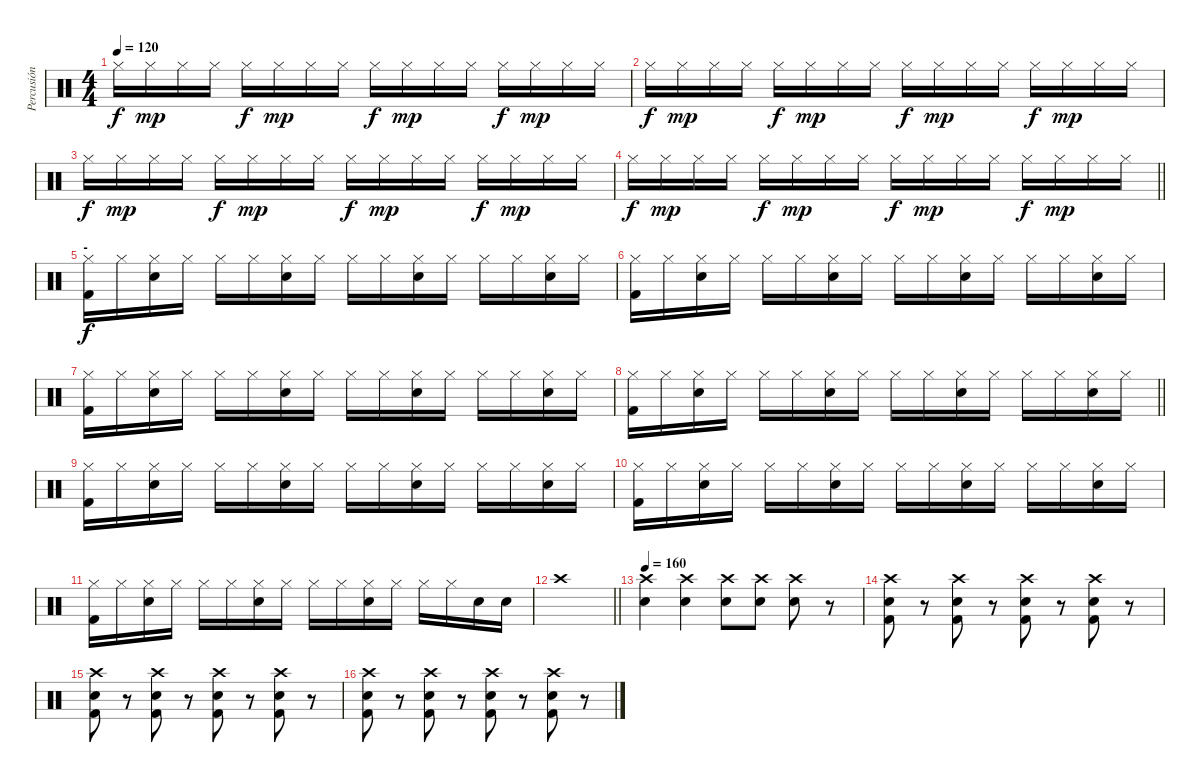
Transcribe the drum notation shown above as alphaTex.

\track ("Percusión" "Percusión") {instrument percussion}
\staff {score}
\articulation defaults
\ts (4 4)
\tempo 120
\clef neutral
\ks c "Hi-Hat (closed)".16{dy f} "Hi-Hat (closed)".16{dy mp} "Hi-Hat (closed)".16 "Hi-Hat (closed)".16 "Hi-Hat (closed)".16{dy f} "Hi-Hat (closed)".16{dy mp} "Hi-Hat (closed)".16 "Hi-Hat (closed)".16 "Hi-Hat (closed)".16{dy f} "Hi-Hat (closed)".16{dy mp} "Hi-Hat (closed)".16 "Hi-Hat (closed)".16 "Hi-Hat (closed)".16{dy f} "Hi-Hat (closed)".16{dy mp} "Hi-Hat (closed)".16 "Hi-Hat (closed)".16
|
"Hi-Hat (closed)".16{dy f} "Hi-Hat (closed)".16{dy mp} "Hi-Hat (closed)".16 "Hi-Hat (closed)".16 "Hi-Hat (closed)".16{dy f} "Hi-Hat (closed)".16{dy mp} "Hi-Hat (closed)".16 "Hi-Hat (closed)".16 "Hi-Hat (closed)".16{dy f} "Hi-Hat (closed)".16{dy mp} "Hi-Hat (closed)".16 "Hi-Hat (closed)".16 "Hi-Hat (closed)".16{dy f} "Hi-Hat (closed)".16{dy mp} "Hi-Hat (closed)".16 "Hi-Hat (closed)".16 |
"Hi-Hat (closed)".16{dy f} "Hi-Hat (closed)".16{dy mp} "Hi-Hat (closed)".16 "Hi-Hat (closed)".16 "Hi-Hat (closed)".16{dy f} "Hi-Hat (closed)".16{dy mp} "Hi-Hat (closed)".16 "Hi-Hat (closed)".16 "Hi-Hat (closed)".16{dy f} "Hi-Hat (closed)".16{dy mp} "Hi-Hat (closed)".16 "Hi-Hat (closed)".16 "Hi-Hat (closed)".16{dy f} "Hi-Hat (closed)".16{dy mp} "Hi-Hat (closed)".16 "Hi-Hat (closed)".16 |
\barLineRight lightlight "Hi-Hat (closed)".16{dy f} "Hi-Hat (closed)".16{dy mp} "Hi-Hat (closed)".16 "Hi-Hat (closed)".16 "Hi-Hat (closed)".16{dy f} "Hi-Hat (closed)".16{dy mp} "Hi-Hat (closed)".16 "Hi-Hat (closed)".16 "Hi-Hat (closed)".16{dy f} "Hi-Hat (closed)".16{dy mp} "Hi-Hat (closed)".16 "Hi-Hat (closed)".16 "Hi-Hat (closed)".16{dy f} "Hi-Hat (closed)".16{dy mp} "Hi-Hat (closed)".16 "Hi-Hat (closed)".16
|
\section ("" "-")
("Hi-Hat (closed)" "Kick (hit) 2").16{dy f} "Hi-Hat (closed)".16 ("Hi-Hat (closed)" "Electric Snare (hit)").16 "Hi-Hat (closed)".16 "Hi-Hat (closed)".16 "Hi-Hat (closed)".16 ("Hi-Hat (closed)" "Electric Snare (hit)").16 "Hi-Hat (closed)".16 "Hi-Hat (closed)".16 "Hi-Hat (closed)".16 ("Hi-Hat (closed)" "Electric Snare (hit)").16 "Hi-Hat (closed)".16 "Hi-Hat (closed)".16 "Hi-Hat (closed)".16 ("Hi-Hat (closed)" "Electric Snare (hit)").16 "Hi-Hat (closed)".16 |
("Hi-Hat (closed)" "Kick (hit) 2").16 "Hi-Hat (closed)".16 ("Hi-Hat (closed)" "Electric Snare (hit)").16 "Hi-Hat (closed)".16 "Hi-Hat (closed)".16 "Hi-Hat (closed)".16 ("Hi-Hat (closed)" "Electric Snare (hit)").16 "Hi-Hat (closed)".16 "Hi-Hat (closed)".16 "Hi-Hat (closed)".16 ("Hi-Hat (closed)" "Electric Snare (hit)").16 "Hi-Hat (closed)".16 "Hi-Hat (closed)".16 "Hi-Hat (closed)".16 ("Hi-Hat (closed)" "Electric Snare (hit)").16 "Hi-Hat (closed)".16 |
("Hi-Hat (closed)" "Kick (hit) 2").16 "Hi-Hat (closed)".16 ("Hi-Hat (closed)" "Electric Snare (hit)").16 "Hi-Hat (closed)".16 "Hi-Hat (closed)".16 "Hi-Hat (closed)".16 ("Hi-Hat (closed)" "Electric Snare (hit)").16 "Hi-Hat (closed)".16 "Hi-Hat (closed)".16 "Hi-Hat (closed)".16 ("Hi-Hat (closed)" "Electric Snare (hit)").16 "Hi-Hat (closed)".16 "Hi-Hat (closed)".16 "Hi-Hat (closed)".16 ("Hi-Hat (closed)" "Electric Snare (hit)").16 "Hi-Hat (closed)".16 |
\barLineRight lightlight
("Hi-Hat (closed)" "Kick (hit) 2").16 "Hi-Hat (closed)".16 ("Hi-Hat (closed)" "Electric Snare (hit)").16 "Hi-Hat (closed)".16 "Hi-Hat (closed)".16 "Hi-Hat (closed)".16 ("Hi-Hat (closed)" "Electric Snare (hit)").16 "Hi-Hat (closed)".16 "Hi-Hat (closed)".16 "Hi-Hat (closed)".16 ("Hi-Hat (closed)" "Electric Snare (hit)").16 "Hi-Hat (closed)".16 "Hi-Hat (closed)".16 "Hi-Hat (closed)".16 ("Hi-Hat (closed)" "Electric Snare (hit)").16 "Hi-Hat (closed)".16 |
("Hi-Hat (closed)" "Kick (hit) 2").16 "Hi-Hat (closed)".16 ("Hi-Hat (closed)" "Electric Snare (hit)").16 "Hi-Hat (closed)".16 "Hi-Hat (closed)".16 "Hi-Hat (closed)".16 ("Hi-Hat (closed)" "Electric Snare (hit)").16 "Hi-Hat (closed)".16 "Hi-Hat (closed)".16 "Hi-Hat (closed)".16 ("Hi-Hat (closed)" "Electric Snare (hit)").16 "Hi-Hat (closed)".16 "Hi-Hat (closed)".16 "Hi-Hat (closed)".16 ("Hi-Hat (closed)" "Electric Snare (hit)").16 "Hi-Hat (closed)".16 |
("Hi-Hat (closed)" "Kick (hit) 2").16 "Hi-Hat (closed)".16 ("Hi-Hat (closed)" "Electric Snare (hit)").16 "Hi-Hat (closed)".16 "Hi-Hat (closed)".16 "Hi-Hat (closed)".16 ("Hi-Hat (closed)" "Electric Snare (hit)").16 "Hi-Hat (closed)".16 "Hi-Hat (closed)".16 "Hi-Hat (closed)".16 ("Hi-Hat (closed)" "Electric Snare (hit)").16 "Hi-Hat (closed)".16 "Hi-Hat (closed)".16 "Hi-Hat (closed)".16 ("Hi-Hat (closed)" "Electric Snare (hit)").16 "Hi-Hat (closed)".16 |
("Hi-Hat (closed)" "Kick (hit) 2").16 "Hi-Hat (closed)".16 ("Hi-Hat (closed)" "Electric Snare (hit)").16 "Hi-Hat (closed)".16 "Hi-Hat (closed)".16 "Hi-Hat (closed)".16 ("Hi-Hat (closed)" "Electric Snare (hit)").16 "Hi-Hat (closed)".16 "Hi-Hat (closed)".16 "Hi-Hat (closed)".16 ("Hi-Hat (closed)" "Electric Snare (hit)").16 "Hi-Hat (closed)".16 "Hi-Hat (closed)".16 "Hi-Hat (closed)".16 "Electric Snare (hit)".16 "Electric Snare (hit)".16 |
\barLineRight lightlight "Crash high (hit)".1
|
\tempo 160
("Crash high (hit)" "Electric Snare (hit)").4 ("Crash high (hit)" "Electric Snare (hit)").4 ("Crash high (hit)" "Electric Snare (hit)").8 ("Crash high (hit)" "Electric Snare (hit)").8 ("Crash high (hit)" "Electric Snare (hit)").8 r.8 |
("Crash high (hit)" "Electric Snare (hit)" "Kick (hit) 2").8 r.8 ("Crash high (hit)" "Electric Snare (hit)" "Kick (hit) 2").8 r.8 ("Crash high (hit)" "Electric Snare (hit)" "Kick (hit) 2").8 r.8 ("Crash high (hit)" "Electric Snare (hit)" "Kick (hit) 2").8 r.8 |
("Crash high (hit)" "Electric Snare (hit)" "Kick (hit) 2").8 r.8 ("Crash high (hit)" "Electric Snare (hit)" "Kick (hit) 2").8 r.8 ("Crash high (hit)" "Electric Snare (hit)" "Kick (hit) 2").8 r.8 ("Crash high (hit)" "Electric Snare (hit)" "Kick (hit) 2").8 r.8 |
("Crash high (hit)" "Electric Snare (hit)" "Kick (hit) 2").8 r.8 ("Crash high (hit)" "Electric Snare (hit)" "Kick (hit) 2").8 r.8 ("Crash high (hit)" "Electric Snare (hit)" "Kick (hit) 2").8 r.8 ("Crash high (hit)" "Electric Snare (hit)" "Kick (hit) 2").8 r.8
